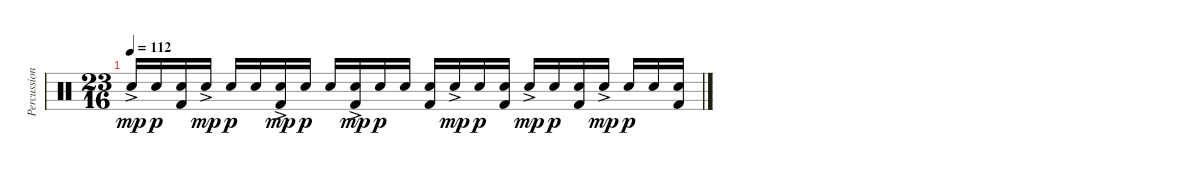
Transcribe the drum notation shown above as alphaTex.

\track ("Percussion" "Percussion") {instrument percussion}
\staff {score}
\articulation defaults
\ts (23 16)
\tempo 112
\clef neutral
\ks c "Snare (hit) 2"{ac}.16{dy mp} "Snare (hit) 2".16{dy p}
("Kick (hit) 2" "Snare (hit) 2").16 "Snare (hit) 2"{ac}.16{dy mp} "Snare (hit) 2".16{dy p} "Snare (hit) 2".16 ("Kick (hit) 2" "Snare (hit) 2"{ac}).16{dy mp} "Snare (hit) 2".16{dy p} "Snare (hit) 2".16 ("Kick (hit) 2" "Snare (hit) 2"{ac}).16{dy mp} "Snare (hit) 2".16{dy p} "Snare (hit) 2".16 ("Kick (hit) 2" "Snare (hit) 2").16 "Snare (hit) 2"{ac}.16{dy mp} "Snare (hit) 2".16{dy p} ("Kick (hit) 2" "Snare (hit) 2").16 "Snare (hit) 2"{ac}.16{dy mp} "Snare (hit) 2".16{dy p} ("Kick (hit) 2" "Snare (hit) 2").16 "Snare (hit) 2"{ac}.16{dy mp} "Snare (hit) 2".16{dy p} "Snare (hit) 2".16 ("Kick (hit) 2" "Snare (hit) 2").16
